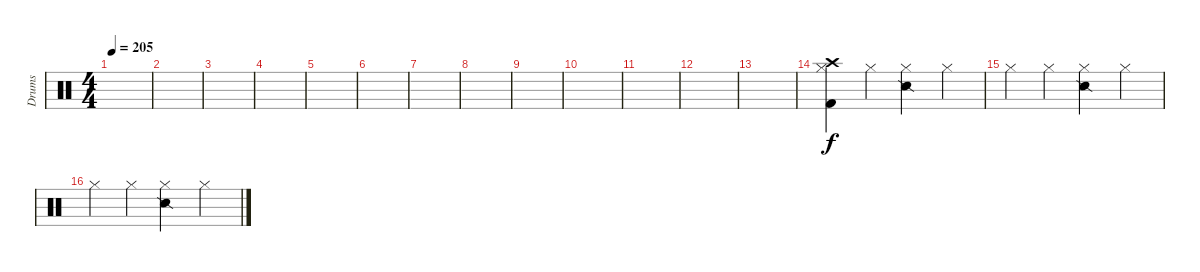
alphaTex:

\track ("Drums" "Drums") {instrument percussion}
\staff {score}
\articulation defaults
\ts (4 4)
\tempo 205
\clef neutral
\ks c
|
|
|
|
|
|
|
|
|
|
|
|
|
("Kick (hit) 2" "Crash high (hit)" "Hi-Hat (closed)").4 "Hi-Hat (closed)".4 ("Snare (side stick) 2" "Hi-Hat (closed)").4 "Hi-Hat (closed)".4 |
"Hi-Hat (closed)".4 "Hi-Hat (closed)".4 ("Snare (side stick) 2" "Hi-Hat (closed)").4 "Hi-Hat (closed)".4 |
"Hi-Hat (closed)".4 "Hi-Hat (closed)".4 ("Snare (side stick) 2" "Hi-Hat (closed)").4 "Hi-Hat (closed)".4
